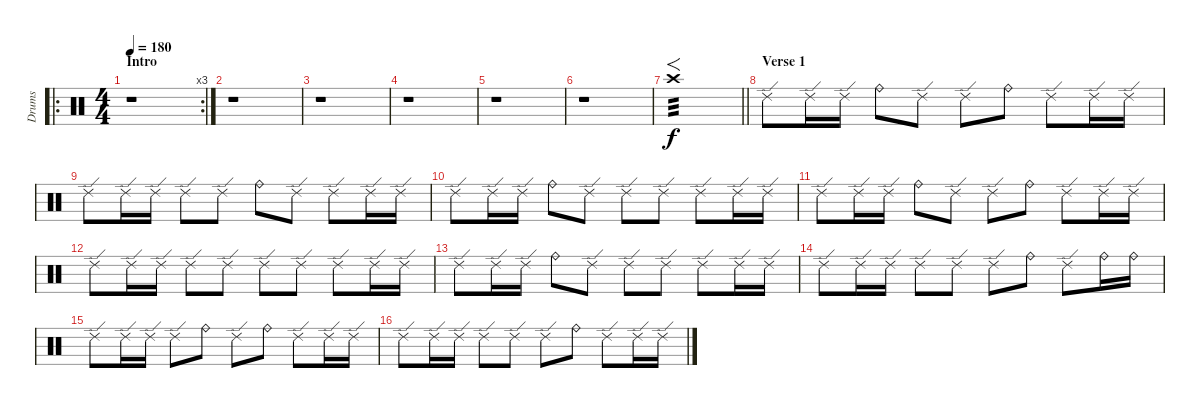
\track ("Drums" "Drums") {instrument percussion}
\staff {score}
\articulation defaults
\ro
\rc 3
\ts (4 4)
\section ("" "Intro")
\tempo 180
\clef neutral
\ks c
r.1{dy f} |
r.1 |
r.1 |
r.1 |
r.1 |
r.1 |
\barLineRight lightlight "Crash high (hit)".1{f tp 3}
|
\section ("" "Verse 1")
"Ride (edge) 2".8 "Ride (edge) 2".16 "Ride (edge) 2".16 "Ride (bell)".8 "Ride (edge) 2".8 "Ride (edge) 2".8 "Ride (bell)".8 "Ride (edge) 2".8 "Ride (edge) 2".16 "Ride (edge) 2".16 |
"Ride (edge) 2".8 "Ride (edge) 2".16 "Ride (edge) 2".16 "Ride (edge) 2".8 "Ride (edge) 2".8 "Ride (bell)".8 "Ride (edge) 2".8 "Ride (edge) 2".8 "Ride (edge) 2".16 "Ride (edge) 2".16 |
"Ride (edge) 2".8 "Ride (edge) 2".16 "Ride (edge) 2".16 "Ride (bell)".8 "Ride (edge) 2".8 "Ride (edge) 2".8 "Ride (edge) 2".8 "Ride (edge) 2".8 "Ride (edge) 2".16 "Ride (edge) 2".16 |
"Ride (edge) 2".8 "Ride (edge) 2".16 "Ride (edge) 2".16 "Ride (bell)".8 "Ride (edge) 2".8 "Ride (edge) 2".8 "Ride (bell)".8 "Ride (edge) 2".8 "Ride (edge) 2".16 "Ride (edge) 2".16 |
"Ride (edge) 2".8 "Ride (edge) 2".16 "Ride (edge) 2".16 "Ride (edge) 2".8 "Ride (edge) 2".8 "Ride (edge) 2".8 "Ride (edge) 2".8 "Ride (edge) 2".8 "Ride (edge) 2".16 "Ride (edge) 2".16 |
"Ride (edge) 2".8 "Ride (edge) 2".16 "Ride (edge) 2".16 "Ride (bell)".8 "Ride (edge) 2".8 "Ride (edge) 2".8 "Ride (edge) 2".8 "Ride (edge) 2".8 "Ride (edge) 2".16 "Ride (edge) 2".16 |
"Ride (edge) 2".8 "Ride (edge) 2".16 "Ride (edge) 2".16 "Ride (edge) 2".8 "Ride (edge) 2".8 "Ride (edge) 2".8 "Ride (bell)".8 "Ride (edge) 2".8 "Ride (bell)".16 "Ride (bell)".16 |
"Ride (edge) 2".8 "Ride (edge) 2".16 "Ride (edge) 2".16 "Ride (edge) 2".8 "Ride (bell)".8 "Ride (edge) 2".8 "Ride (bell)".8 "Ride (edge) 2".8 "Ride (edge) 2".16 "Ride (edge) 2".16 |
"Ride (edge) 2".8 "Ride (edge) 2".16 "Ride (edge) 2".16 "Ride (edge) 2".8 "Ride (edge) 2".8 "Ride (edge) 2".8 "Ride (bell)".8 "Ride (edge) 2".8 "Ride (edge) 2".16 "Ride (edge) 2".16
